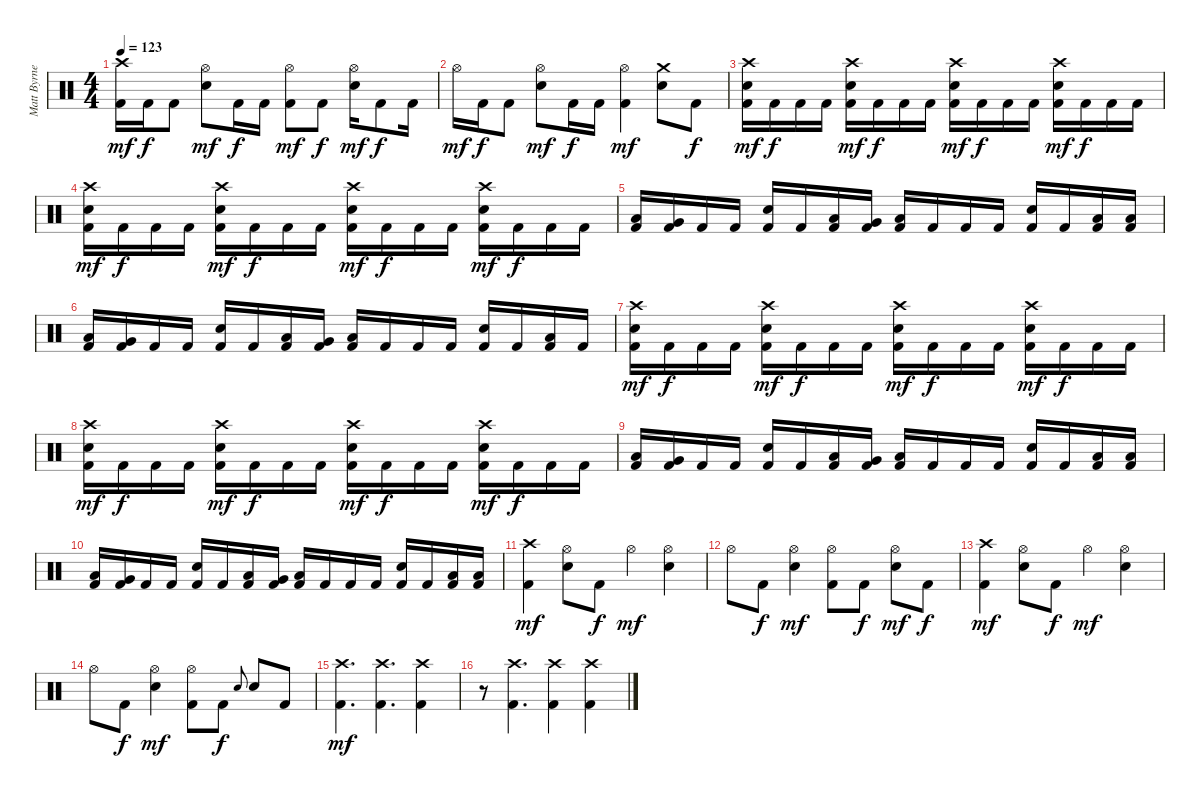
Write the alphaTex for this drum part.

\track ("Matt Byrne" "Matt Byrne") {instrument percussion}
\staff {score}
\articulation defaults
\ts (4 4)
\tempo 123
\clef neutral
\ks c
("Crash high (hit)" "Kick (hit) 2").16{dy mf} "Kick (hit) 2".16{dy f} "Kick (hit) 2".8 ("Hi-Hat (open)" "Electric Snare (hit)").8{dy mf} "Kick (hit) 2".16{dy f} "Kick (hit) 2".16 ("Hi-Hat (open)" "Kick (hit) 2").8{dy mf} "Kick (hit) 2".8{dy f} ("Hi-Hat (open)" "Electric Snare (hit)").16{dy mf} "Kick (hit) 2".8{dy f} "Kick (hit) 2".16 |
"Hi-Hat (open)".16{dy mf} "Kick (hit) 2".16{dy f} "Kick (hit) 2".8 ("Hi-Hat (open)" "Electric Snare (hit)").8{dy mf} "Kick (hit) 2".16{dy f} "Kick (hit) 2".16 ("Hi-Hat (open)" "Kick (hit) 2").4{dy mf} ("Crash medium (hit)" "Electric Snare (hit)").8 "Kick (hit) 2".8{dy f} |
("Crash high (hit)" "Electric Snare (hit)" "Kick (hit) 2").16{dy mf} "Kick (hit) 2".16{dy f} "Kick (hit) 2".16 "Kick (hit) 2".16 ("Crash high (hit)" "Electric Snare (hit)" "Kick (hit) 2").16{dy mf} "Kick (hit) 2".16{dy f} "Kick (hit) 2".16 "Kick (hit) 2".16 ("Crash high (hit)" "Electric Snare (hit)" "Kick (hit) 2").16{dy mf} "Kick (hit) 2".16{dy f} "Kick (hit) 2".16 "Kick (hit) 2".16 ("Crash high (hit)" "Electric Snare (hit)" "Kick (hit) 2").16{dy mf} "Kick (hit) 2".16{dy f} "Kick (hit) 2".16 "Kick (hit) 2".16 |
("Crash high (hit)" "Electric Snare (hit)" "Kick (hit) 2").16{dy mf} "Kick (hit) 2".16{dy f} "Kick (hit) 2".16 "Kick (hit) 2".16 ("Crash high (hit)" "Electric Snare (hit)" "Kick (hit) 2").16{dy mf} "Kick (hit) 2".16{dy f} "Kick (hit) 2".16 "Kick (hit) 2".16 ("Crash high (hit)" "Electric Snare (hit)" "Kick (hit) 2").16{dy mf} "Kick (hit) 2".16{dy f} "Kick (hit) 2".16 "Kick (hit) 2".16 ("Crash high (hit)" "Electric Snare (hit)" "Kick (hit) 2").16{dy mf} "Kick (hit) 2".16{dy f} "Kick (hit) 2".16 "Kick (hit) 2".16 |
("Low Tom (hit)" "Kick (hit) 2").16 ("Very Low Tom (hit)" "Kick (hit) 2").16 "Kick (hit) 2".16 "Kick (hit) 2".16 ("Electric Snare (hit)" "Kick (hit) 2").16 "Kick (hit) 2".16 ("Low Floor Tom (hit)" "Kick (hit) 2").16 ("Very Low Tom (hit)" "Kick (hit) 2").16 ("Low Tom (hit)" "Kick (hit) 2").16 "Kick (hit) 2".16 "Kick (hit) 2".16 "Kick (hit) 2".16 ("Electric Snare (hit)" "Kick (hit) 2").16 "Kick (hit) 2".16 ("Low Floor Tom (hit)" "Kick (hit) 2").16 ("Low Floor Tom (hit)" "Kick (hit) 2").16 |
("Low Tom (hit)" "Kick (hit) 2").16 ("Very Low Tom (hit)" "Kick (hit) 2").16 "Kick (hit) 2".16 "Kick (hit) 2".16 ("Electric Snare (hit)" "Kick (hit) 2").16 "Kick (hit) 2".16 ("Low Floor Tom (hit)" "Kick (hit) 2").16 ("Very Low Tom (hit)" "Kick (hit) 2").16 ("Low Tom (hit)" "Kick (hit) 2").16 "Kick (hit) 2".16 "Kick (hit) 2".16 "Kick (hit) 2".16 ("Electric Snare (hit)" "Kick (hit) 2").16 "Kick (hit) 2".16 ("Low Floor Tom (hit)" "Kick (hit) 2").16 "Kick (hit) 2".16 |
("Crash high (hit)" "Electric Snare (hit)" "Kick (hit) 2").16{dy mf} "Kick (hit) 2".16{dy f} "Kick (hit) 2".16 "Kick (hit) 2".16 ("Crash high (hit)" "Electric Snare (hit)" "Kick (hit) 2").16{dy mf} "Kick (hit) 2".16{dy f} "Kick (hit) 2".16 "Kick (hit) 2".16 ("Crash high (hit)" "Electric Snare (hit)" "Kick (hit) 2").16{dy mf} "Kick (hit) 2".16{dy f} "Kick (hit) 2".16 "Kick (hit) 2".16 ("Crash high (hit)" "Electric Snare (hit)" "Kick (hit) 2").16{dy mf} "Kick (hit) 2".16{dy f} "Kick (hit) 2".16 "Kick (hit) 2".16 |
("Crash high (hit)" "Electric Snare (hit)" "Kick (hit) 2").16{dy mf} "Kick (hit) 2".16{dy f} "Kick (hit) 2".16 "Kick (hit) 2".16 ("Crash high (hit)" "Electric Snare (hit)" "Kick (hit) 2").16{dy mf} "Kick (hit) 2".16{dy f} "Kick (hit) 2".16 "Kick (hit) 2".16 ("Crash high (hit)" "Electric Snare (hit)" "Kick (hit) 2").16{dy mf} "Kick (hit) 2".16{dy f} "Kick (hit) 2".16 "Kick (hit) 2".16 ("Crash high (hit)" "Electric Snare (hit)" "Kick (hit) 2").16{dy mf} "Kick (hit) 2".16{dy f} "Kick (hit) 2".16 "Kick (hit) 2".16 |
("Low Tom (hit)" "Kick (hit) 2").16 ("Very Low Tom (hit)" "Kick (hit) 2").16 "Kick (hit) 2".16 "Kick (hit) 2".16 ("Electric Snare (hit)" "Kick (hit) 2").16 "Kick (hit) 2".16 ("Low Floor Tom (hit)" "Kick (hit) 2").16 ("Very Low Tom (hit)" "Kick (hit) 2").16 ("Low Tom (hit)" "Kick (hit) 2").16 "Kick (hit) 2".16 "Kick (hit) 2".16 "Kick (hit) 2".16 ("Electric Snare (hit)" "Kick (hit) 2").16 "Kick (hit) 2".16 ("Low Floor Tom (hit)" "Kick (hit) 2").16 ("Low Floor Tom (hit)" "Kick (hit) 2").16 |
("Low Tom (hit)" "Kick (hit) 2").16 ("Very Low Tom (hit)" "Kick (hit) 2").16 "Kick (hit) 2".16 "Kick (hit) 2".16 ("Electric Snare (hit)" "Kick (hit) 2").16 "Kick (hit) 2".16 ("Low Floor Tom (hit)" "Kick (hit) 2").16 ("Very Low Tom (hit)" "Kick (hit) 2").16 ("Low Tom (hit)" "Kick (hit) 2").16 "Kick (hit) 2".16 "Kick (hit) 2".16 "Kick (hit) 2".16 ("Electric Snare (hit)" "Kick (hit) 2").16 "Kick (hit) 2".16 ("Low Floor Tom (hit)" "Kick (hit) 2").16 ("Low Floor Tom (hit)" "Kick (hit) 2").16 |
("Crash high (hit)" "Kick (hit) 2").4{dy mf} ("Hi-Hat (open)" "Electric Snare (hit)").8 "Kick (hit) 2".8{dy f} "Hi-Hat (open)".4{dy mf} ("Hi-Hat (open)" "Electric Snare (hit)").4 |
"Hi-Hat (open)".8 "Kick (hit) 2".8{dy f} ("Hi-Hat (open)" "Electric Snare (hit)").4{dy mf} ("Hi-Hat (open)" "Kick (hit) 2").8 "Kick (hit) 2".8{dy f} ("Hi-Hat (open)" "Electric Snare (hit)").8{dy mf} "Kick (hit) 2".8{dy f} |
("Crash high (hit)" "Kick (hit) 2").4{dy mf} ("Hi-Hat (open)" "Electric Snare (hit)").8 "Kick (hit) 2".8{dy f} "Hi-Hat (open)".4{dy mf} ("Hi-Hat (open)" "Electric Snare (hit)").4 |
"Hi-Hat (open)".8 "Kick (hit) 2".8{dy f} ("Hi-Hat (open)" "Electric Snare (hit)").4{dy mf} ("Hi-Hat (open)" "Kick (hit) 2").8 "Kick (hit) 2".8{dy f} "Electric Snare (hit)".8{gr onbeat} "Electric Snare (hit)".8 "Kick (hit) 2".8 |
("Crash high (hit)" "Kick (hit) 2").4{d dy mf} ("Crash high (hit)" "Kick (hit) 2").4{d} ("Crash high (hit)" "Kick (hit) 2").4 |
r.8 ("Crash high (hit)" "Kick (hit) 2").4{d} ("Crash high (hit)" "Kick (hit) 2").4 ("Crash high (hit)" "Kick (hit) 2").4
